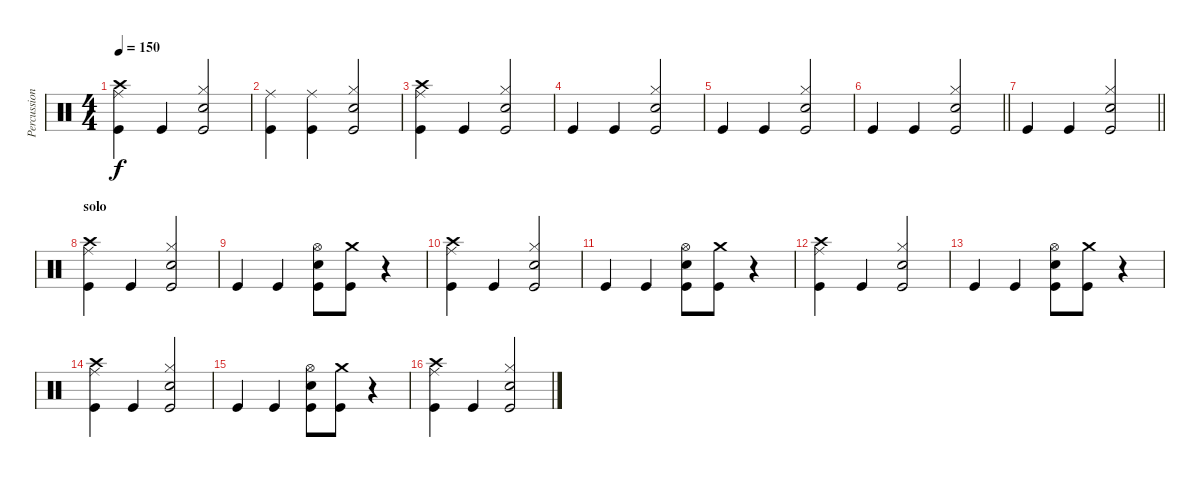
\track ("Percussion" "Percussion") {instrument percussion}
\staff {score}
\articulation defaults
\ts (4 4)
\tempo 150
\clef neutral
\ks c
("Crash high (hit)" "Ride (middle)" "Kick (hit)").4{dy f} "Kick (hit)".4 ("Hi-Hat (closed)" "Electric Snare (hit)" "Kick (hit)").2 |
("Ride (middle)" "Kick (hit)").4 ("Ride (middle)" "Kick (hit)").4 ("Hi-Hat (closed)" "Electric Snare (hit)" "Kick (hit)").2 |
("Crash high (hit)" "Ride (middle)" "Kick (hit)").4 "Kick (hit)".4 ("Hi-Hat (closed)" "Electric Snare (hit)" "Kick (hit)").2 |
"Kick (hit)".4 "Kick (hit)".4 ("Hi-Hat (closed)" "Electric Snare (hit)" "Kick (hit)").2 |
"Kick (hit)".4 "Kick (hit)".4 ("Hi-Hat (closed)" "Electric Snare (hit)" "Kick (hit)").2 |
\barLineRight lightlight "Kick (hit)".4 "Kick (hit)".4
("Hi-Hat (closed)" "Electric Snare (hit)" "Kick (hit)").2 |
\barLineRight lightlight "Kick (hit)".4 "Kick (hit)".4
("Hi-Hat (closed)" "Electric Snare (hit)" "Kick (hit)").2 |
\section ("" "solo")
("Crash high (hit)" "Ride (middle)" "Kick (hit)").4 "Kick (hit)".4 ("Hi-Hat (closed)" "Electric Snare (hit)" "Kick (hit)").2 |
"Kick (hit)".4 "Kick (hit)".4 ("Hi-Hat (open)" "Electric Snare (hit)" "Kick (hit)").8 ("Crash medium (hit)" "Kick (hit)").8 r.4 |
("Crash high (hit)" "Ride (middle)" "Kick (hit)").4 "Kick (hit)".4 ("Hi-Hat (closed)" "Electric Snare (hit)" "Kick (hit)").2 |
"Kick (hit)".4 "Kick (hit)".4 ("Hi-Hat (open)" "Electric Snare (hit)" "Kick (hit)").8 ("Crash medium (hit)" "Kick (hit)").8 r.4 |
("Crash high (hit)" "Ride (middle)" "Kick (hit)").4 "Kick (hit)".4 ("Hi-Hat (closed)" "Electric Snare (hit)" "Kick (hit)").2 |
"Kick (hit)".4 "Kick (hit)".4 ("Hi-Hat (open)" "Electric Snare (hit)" "Kick (hit)").8 ("Crash medium (hit)" "Kick (hit)").8 r.4 |
("Crash high (hit)" "Ride (middle)" "Kick (hit)").4 "Kick (hit)".4 ("Hi-Hat (closed)" "Electric Snare (hit)" "Kick (hit)").2 |
"Kick (hit)".4 "Kick (hit)".4 ("Hi-Hat (open)" "Electric Snare (hit)" "Kick (hit)").8 ("Crash medium (hit)" "Kick (hit)").8 r.4 |
("Crash high (hit)" "Ride (middle)" "Kick (hit)").4 "Kick (hit)".4 ("Hi-Hat (closed)" "Electric Snare (hit)" "Kick (hit)").2
